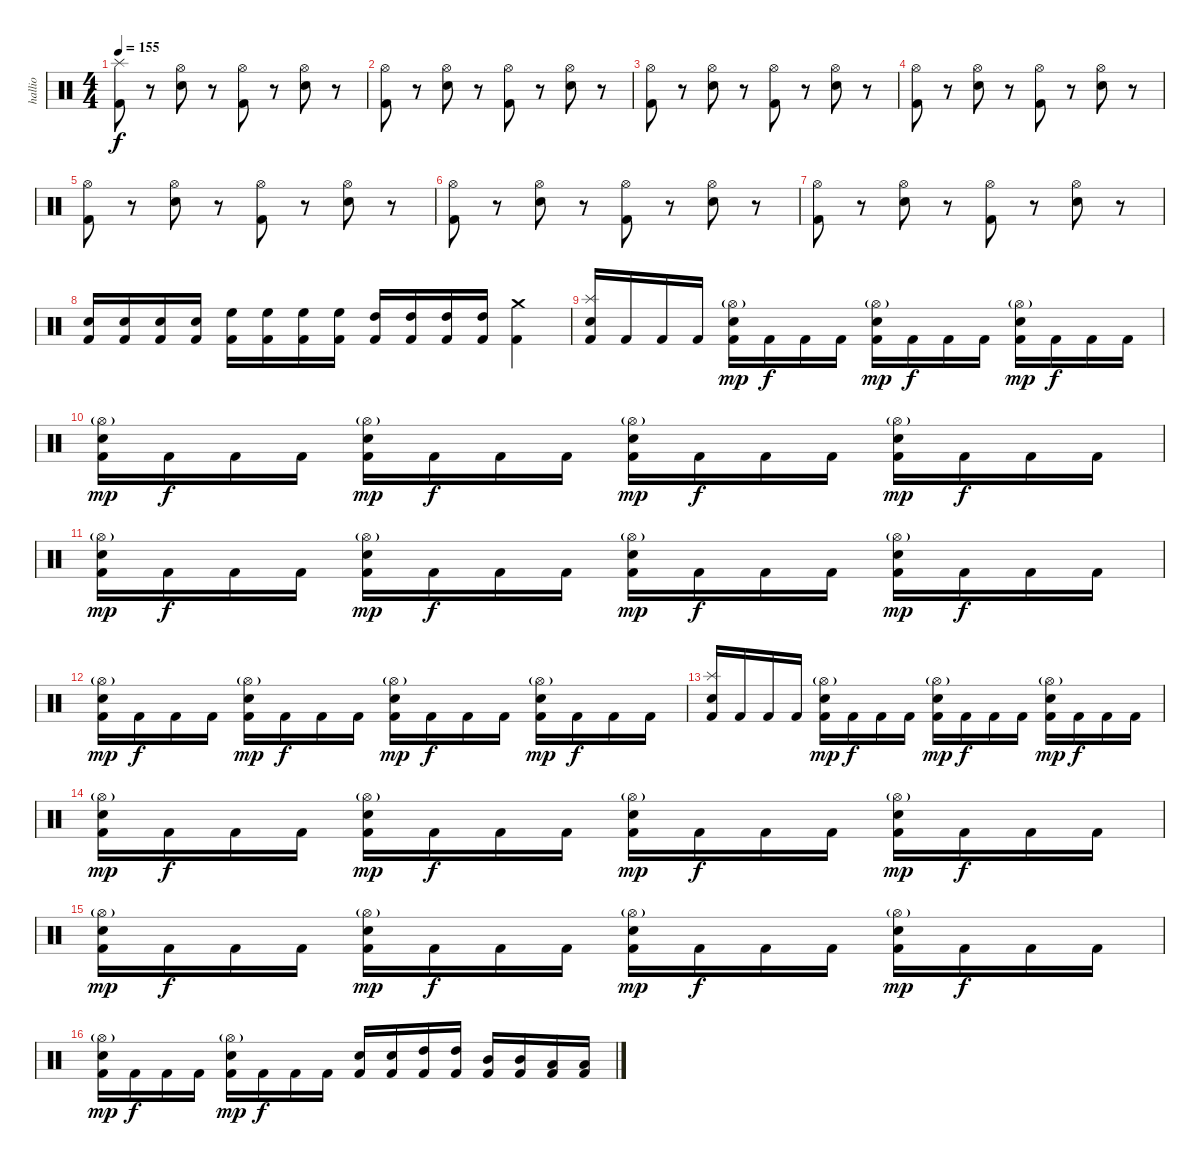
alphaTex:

\track ("hallio" "hallio") {instrument percussion}
\staff {score}
\articulation defaults
\ts (4 4)
\tempo 155
\clef neutral
\ks c
("Kick (hit) 2" "Splash (hit)").8{dy f} r.8 ("Snare (hit) 2" "Hi-Hat (open)").8 r.8 ("Kick (hit) 2" "Hi-Hat (open)").8 r.8 ("Snare (hit) 2" "Hi-Hat (open)").8 r.8 |
("Kick (hit) 2" "Hi-Hat (open)").8 r.8 ("Snare (hit) 2" "Hi-Hat (open)").8 r.8 ("Kick (hit) 2" "Hi-Hat (open)").8 r.8 ("Snare (hit) 2" "Hi-Hat (open)").8 r.8 |
("Kick (hit) 2" "Hi-Hat (open)").8 r.8 ("Snare (hit) 2" "Hi-Hat (open)").8 r.8 ("Kick (hit) 2" "Hi-Hat (open)").8 r.8 ("Snare (hit) 2" "Hi-Hat (open)").8 r.8 |
("Kick (hit) 2" "Hi-Hat (open)").8 r.8 ("Snare (hit) 2" "Hi-Hat (open)").8 r.8 ("Kick (hit) 2" "Hi-Hat (open)").8 r.8 ("Snare (hit) 2" "Hi-Hat (open)").8 r.8 |
("Kick (hit) 2" "Hi-Hat (open)").8 r.8 ("Snare (hit) 2" "Hi-Hat (open)").8 r.8 ("Kick (hit) 2" "Hi-Hat (open)").8 r.8 ("Snare (hit) 2" "Hi-Hat (open)").8 r.8 |
("Kick (hit) 2" "Hi-Hat (open)").8 r.8 ("Snare (hit) 2" "Hi-Hat (open)").8 r.8 ("Kick (hit) 2" "Hi-Hat (open)").8 r.8 ("Snare (hit) 2" "Hi-Hat (open)").8 r.8 |
("Kick (hit) 2" "Hi-Hat (open)").8 r.8 ("Snare (hit) 2" "Hi-Hat (open)").8 r.8 ("Kick (hit) 2" "Hi-Hat (open)").8 r.8 ("Snare (hit) 2" "Hi-Hat (open)").8 r.8 |
("Kick (hit) 2" "Snare (hit) 2").16 ("Kick (hit) 2" "Snare (hit) 2").16 ("Kick (hit) 2" "Snare (hit) 2").16 ("Kick (hit) 2" "Snare (hit) 2").16 ("Kick (hit) 2" "High Floor Tom (hit)").16 ("Kick (hit) 2" "High Floor Tom (hit)").16 ("Kick (hit) 2" "High Floor Tom (hit)").16 ("Kick (hit) 2" "High Floor Tom (hit)").16 ("Kick (hit) 2" "High Tom (hit)").16 ("Kick (hit) 2" "High Tom (hit)").16 ("Kick (hit) 2" "High Tom (hit)").16 ("Kick (hit) 2" "High Tom (hit)").16 ("Kick (hit) 2" "Crash medium (hit)").4 |
("Kick (hit) 2" "Snare (hit) 2" "Splash (hit)").16 "Kick (hit) 2".16 "Kick (hit) 2".16 "Kick (hit) 2".16 ("Kick (hit) 2" "Snare (hit) 2" "Hi-Hat (open)"{g}).16{dy mp} "Kick (hit) 2".16{dy f} "Kick (hit) 2".16 "Kick (hit) 2".16 ("Kick (hit) 2" "Snare (hit) 2" "Hi-Hat (open)"{g}).16{dy mp} "Kick (hit) 2".16{dy f} "Kick (hit) 2".16 "Kick (hit) 2".16 ("Kick (hit) 2" "Snare (hit) 2" "Hi-Hat (open)"{g}).16{dy mp} "Kick (hit) 2".16{dy f} "Kick (hit) 2".16 "Kick (hit) 2".16 |
("Kick (hit) 2" "Snare (hit) 2" "Hi-Hat (open)"{g}).16{dy mp} "Kick (hit) 2".16{dy f} "Kick (hit) 2".16 "Kick (hit) 2".16 ("Kick (hit) 2" "Snare (hit) 2" "Hi-Hat (open)"{g}).16{dy mp} "Kick (hit) 2".16{dy f} "Kick (hit) 2".16 "Kick (hit) 2".16 ("Kick (hit) 2" "Snare (hit) 2" "Hi-Hat (open)"{g}).16{dy mp} "Kick (hit) 2".16{dy f} "Kick (hit) 2".16 "Kick (hit) 2".16 ("Kick (hit) 2" "Snare (hit) 2" "Hi-Hat (open)"{g}).16{dy mp} "Kick (hit) 2".16{dy f} "Kick (hit) 2".16 "Kick (hit) 2".16 |
("Kick (hit) 2" "Snare (hit) 2" "Hi-Hat (open)"{g}).16{dy mp} "Kick (hit) 2".16{dy f} "Kick (hit) 2".16 "Kick (hit) 2".16 ("Kick (hit) 2" "Snare (hit) 2" "Hi-Hat (open)"{g}).16{dy mp} "Kick (hit) 2".16{dy f} "Kick (hit) 2".16 "Kick (hit) 2".16 ("Kick (hit) 2" "Snare (hit) 2" "Hi-Hat (open)"{g}).16{dy mp} "Kick (hit) 2".16{dy f} "Kick (hit) 2".16 "Kick (hit) 2".16 ("Kick (hit) 2" "Snare (hit) 2" "Hi-Hat (open)"{g}).16{dy mp} "Kick (hit) 2".16{dy f} "Kick (hit) 2".16 "Kick (hit) 2".16 |
("Kick (hit) 2" "Snare (hit) 2" "Hi-Hat (open)"{g}).16{dy mp} "Kick (hit) 2".16{dy f} "Kick (hit) 2".16 "Kick (hit) 2".16 ("Kick (hit) 2" "Snare (hit) 2" "Hi-Hat (open)"{g}).16{dy mp} "Kick (hit) 2".16{dy f} "Kick (hit) 2".16 "Kick (hit) 2".16 ("Kick (hit) 2" "Snare (hit) 2" "Hi-Hat (open)"{g}).16{dy mp} "Kick (hit) 2".16{dy f} "Kick (hit) 2".16 "Kick (hit) 2".16 ("Kick (hit) 2" "Snare (hit) 2" "Hi-Hat (open)"{g}).16{dy mp} "Kick (hit) 2".16{dy f} "Kick (hit) 2".16 "Kick (hit) 2".16 |
("Kick (hit) 2" "Snare (hit) 2" "Splash (hit)").16 "Kick (hit) 2".16 "Kick (hit) 2".16 "Kick (hit) 2".16 ("Kick (hit) 2" "Snare (hit) 2" "Hi-Hat (open)"{g}).16{dy mp} "Kick (hit) 2".16{dy f} "Kick (hit) 2".16 "Kick (hit) 2".16 ("Kick (hit) 2" "Snare (hit) 2" "Hi-Hat (open)"{g}).16{dy mp} "Kick (hit) 2".16{dy f} "Kick (hit) 2".16 "Kick (hit) 2".16 ("Kick (hit) 2" "Snare (hit) 2" "Hi-Hat (open)"{g}).16{dy mp} "Kick (hit) 2".16{dy f} "Kick (hit) 2".16 "Kick (hit) 2".16 |
("Kick (hit) 2" "Snare (hit) 2" "Hi-Hat (open)"{g}).16{dy mp} "Kick (hit) 2".16{dy f} "Kick (hit) 2".16 "Kick (hit) 2".16 ("Kick (hit) 2" "Snare (hit) 2" "Hi-Hat (open)"{g}).16{dy mp} "Kick (hit) 2".16{dy f} "Kick (hit) 2".16 "Kick (hit) 2".16 ("Kick (hit) 2" "Snare (hit) 2" "Hi-Hat (open)"{g}).16{dy mp} "Kick (hit) 2".16{dy f} "Kick (hit) 2".16 "Kick (hit) 2".16 ("Kick (hit) 2" "Snare (hit) 2" "Hi-Hat (open)"{g}).16{dy mp} "Kick (hit) 2".16{dy f} "Kick (hit) 2".16 "Kick (hit) 2".16 |
("Kick (hit) 2" "Snare (hit) 2" "Hi-Hat (open)"{g}).16{dy mp} "Kick (hit) 2".16{dy f} "Kick (hit) 2".16 "Kick (hit) 2".16 ("Kick (hit) 2" "Snare (hit) 2" "Hi-Hat (open)"{g}).16{dy mp} "Kick (hit) 2".16{dy f} "Kick (hit) 2".16 "Kick (hit) 2".16 ("Kick (hit) 2" "Snare (hit) 2" "Hi-Hat (open)"{g}).16{dy mp} "Kick (hit) 2".16{dy f} "Kick (hit) 2".16 "Kick (hit) 2".16 ("Kick (hit) 2" "Snare (hit) 2" "Hi-Hat (open)"{g}).16{dy mp} "Kick (hit) 2".16{dy f} "Kick (hit) 2".16 "Kick (hit) 2".16 |
("Kick (hit) 2" "Snare (hit) 2" "Hi-Hat (open)"{g}).16{dy mp} "Kick (hit) 2".16{dy f} "Kick (hit) 2".16 "Kick (hit) 2".16 ("Kick (hit) 2" "Snare (hit) 2" "Hi-Hat (open)"{g}).16{dy mp} "Kick (hit) 2".16{dy f} "Kick (hit) 2".16 "Kick (hit) 2".16 ("Kick (hit) 2" "Snare (hit) 2").16 ("Kick (hit) 2" "Snare (hit) 2").16 ("Kick (hit) 2" "High Tom (hit)").16 ("Kick (hit) 2" "High Tom (hit)").16 ("Kick (hit) 2" "Mid Tom (hit)").16 ("Kick (hit) 2" "Mid Tom (hit)").16 ("Kick (hit) 2" "Low Tom (hit)").16 ("Kick (hit) 2" "Low Tom (hit)").16
